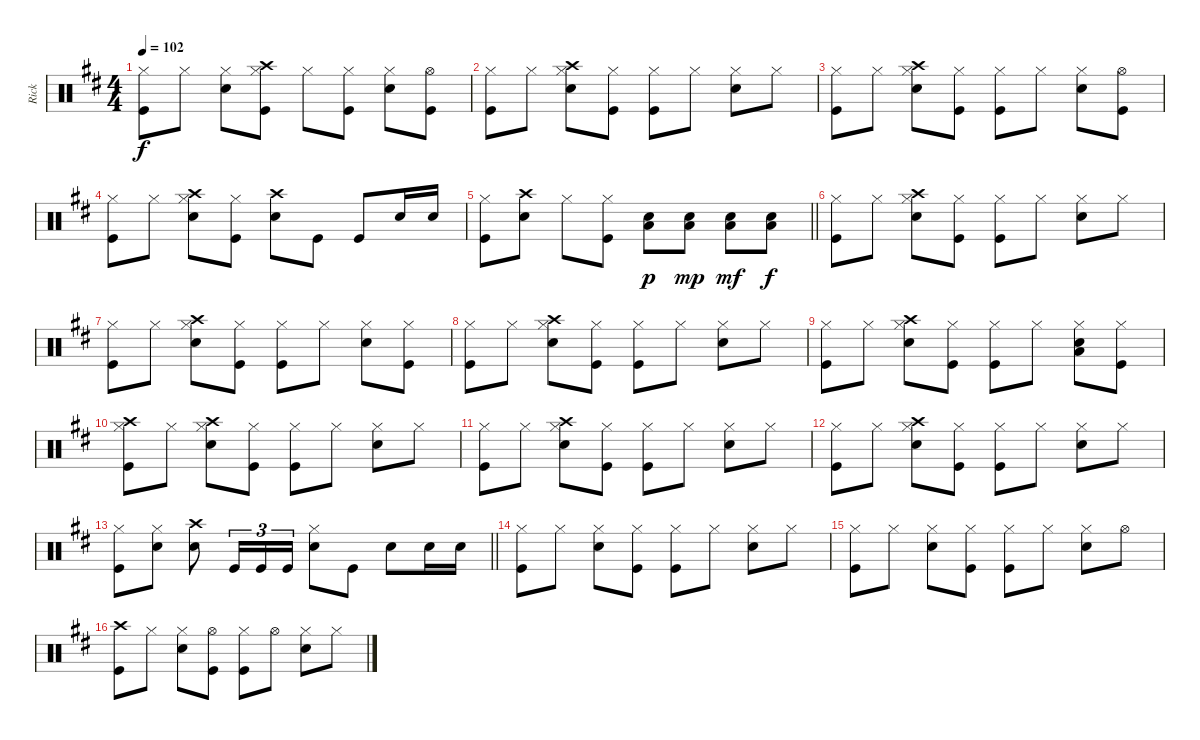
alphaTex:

\track ("Rick" "Rick") {instrument percussion}
\staff {score}
\articulation defaults
\ts (4 4)
\tempo 102
\clef neutral
\ks d
("Hi-Hat (closed)" "Kick (hit)").8{dy f} "Hi-Hat (closed)".8 ("Snare (hit) 2" "Hi-Hat (closed)").8 ("Hi-Hat (closed)" "Crash high (hit)" "Kick (hit)").8 "Hi-Hat (closed)".8 ("Hi-Hat (closed)" "Kick (hit)").8 ("Hi-Hat (closed)" "Snare (hit) 2").8 ("Hi-Hat (open)" "Kick (hit)").8 |
("Hi-Hat (closed)" "Kick (hit)").8 "Hi-Hat (closed)".8 ("Crash high (hit)" "Snare (hit) 2" "Hi-Hat (closed)").8 ("Hi-Hat (closed)" "Kick (hit)").8 ("Hi-Hat (closed)" "Kick (hit)").8 "Hi-Hat (closed)".8 ("Hi-Hat (closed)" "Snare (hit) 2").8 "Hi-Hat (closed)".8 |
("Hi-Hat (closed)" "Kick (hit)").8 "Hi-Hat (closed)".8 ("Crash high (hit)" "Snare (hit) 2" "Hi-Hat (closed)").8 ("Hi-Hat (closed)" "Kick (hit)").8 ("Hi-Hat (closed)" "Kick (hit)").8 "Hi-Hat (closed)".8 ("Hi-Hat (closed)" "Snare (hit) 2").8 ("Hi-Hat (open)" "Kick (hit)").8 |
("Hi-Hat (closed)" "Kick (hit)").8 "Hi-Hat (closed)".8 ("Hi-Hat (closed)" "Crash high (hit)" "Snare (hit) 2").8 ("Hi-Hat (closed)" "Kick (hit)").8 ("Crash high (hit)" "Snare (hit) 2").8 "Kick (hit)".8 "Kick (hit)".8 "Snare (hit) 2".16 "Snare (hit) 2".16 |
\barLineRight lightlight
("Hi-Hat (closed)" "Kick (hit)").8 ("Crash high (hit)" "Snare (hit) 2").8 "Hi-Hat (closed)".8 ("Hi-Hat (closed)" "Kick (hit)").8 ("Low Tom (hit)" "Snare (hit) 2").8{dy p} ("Low Tom (hit)" "Snare (hit) 2").8{dy mp} ("Low Tom (hit)" "Snare (hit) 2").8{dy mf} ("Low Tom (hit)" "Snare (hit) 2").8{dy f} |
("Hi-Hat (closed)" "Kick (hit)").8 "Hi-Hat (closed)".8 ("Crash high (hit)" "Snare (hit) 2" "Hi-Hat (closed)").8 ("Hi-Hat (closed)" "Kick (hit)").8 ("Hi-Hat (closed)" "Kick (hit)").8 "Hi-Hat (closed)".8 ("Hi-Hat (closed)" "Snare (hit) 2").8 "Hi-Hat (closed)".8 |
("Hi-Hat (closed)" "Kick (hit)").8 "Hi-Hat (closed)".8 ("Crash high (hit)" "Snare (hit) 2" "Hi-Hat (closed)").8 ("Hi-Hat (closed)" "Kick (hit)").8 ("Hi-Hat (closed)" "Kick (hit)").8 "Hi-Hat (closed)".8 ("Hi-Hat (closed)" "Snare (hit) 2").8 ("Hi-Hat (closed)" "Kick (hit)").8 |
("Hi-Hat (closed)" "Kick (hit)").8 "Hi-Hat (closed)".8 ("Crash high (hit)" "Snare (hit) 2" "Hi-Hat (closed)").8 ("Hi-Hat (closed)" "Kick (hit)").8 ("Hi-Hat (closed)" "Kick (hit)").8 "Hi-Hat (closed)".8 ("Hi-Hat (closed)" "Snare (hit) 2").8 "Hi-Hat (closed)".8 |
("Hi-Hat (closed)" "Kick (hit)").8 "Hi-Hat (closed)".8 ("Crash high (hit)" "Snare (hit) 2" "Hi-Hat (closed)").8 ("Hi-Hat (closed)" "Kick (hit)").8 ("Hi-Hat (closed)" "Kick (hit)").8 "Hi-Hat (closed)".8 ("Hi-Hat (closed)" "Snare (hit) 2" "Low Tom (hit)").8 ("Hi-Hat (closed)" "Kick (hit)").8 |
("Hi-Hat (closed)" "Crash high (hit)" "Kick (hit)").8 "Hi-Hat (closed)".8 ("Crash high (hit)" "Snare (hit) 2" "Hi-Hat (closed)").8 ("Hi-Hat (closed)" "Kick (hit)").8 ("Hi-Hat (closed)" "Kick (hit)").8 "Hi-Hat (closed)".8 ("Hi-Hat (closed)" "Snare (hit) 2").8 "Hi-Hat (closed)".8 |
("Hi-Hat (closed)" "Kick (hit)").8 "Hi-Hat (closed)".8 ("Crash high (hit)" "Hi-Hat (closed)" "Snare (hit) 2").8 ("Hi-Hat (closed)" "Kick (hit)").8 ("Hi-Hat (closed)" "Kick (hit)").8 "Hi-Hat (closed)".8 ("Hi-Hat (closed)" "Snare (hit) 2").8 "Hi-Hat (closed)".8 |
("Hi-Hat (closed)" "Kick (hit)").8 "Hi-Hat (closed)".8 ("Crash high (hit)" "Hi-Hat (closed)" "Snare (hit) 2").8 ("Hi-Hat (closed)" "Kick (hit)").8 ("Hi-Hat (closed)" "Kick (hit)").8 "Hi-Hat (closed)".8 ("Hi-Hat (closed)" "Snare (hit) 2").8 "Hi-Hat (closed)".8 |
\barLineRight lightlight
("Hi-Hat (closed)" "Kick (hit)").8 ("Hi-Hat (closed)" "Snare (hit) 2").8 ("Crash high (hit)" "Snare (hit) 2").8 "Kick (hit)".16{tu (3 2)} "Kick (hit)".16{tu (3 2)} "Kick (hit)".16{tu (3 2)} ("Hi-Hat (closed)" "Snare (hit) 2").8 "Kick (hit)".8 "Snare (hit) 2".8 "Snare (hit) 2".16 "Snare (hit) 2".16 |
("Hi-Hat (closed)" "Kick (hit)").8 "Hi-Hat (closed)".8 ("Hi-Hat (closed)" "Snare (hit) 2").8 ("Hi-Hat (closed)" "Kick (hit)").8 ("Hi-Hat (closed)" "Kick (hit)").8 "Hi-Hat (closed)".8 ("Hi-Hat (closed)" "Snare (hit) 2").8 "Hi-Hat (closed)".8 |
("Hi-Hat (closed)" "Kick (hit)").8 "Hi-Hat (closed)".8 ("Hi-Hat (closed)" "Snare (hit) 2").8 ("Hi-Hat (closed)" "Kick (hit)").8 ("Hi-Hat (closed)" "Kick (hit)").8 "Hi-Hat (closed)".8 ("Hi-Hat (closed)" "Snare (hit) 2").8 "Hi-Hat (open)".8 |
("Crash high (hit)" "Kick (hit)").8 "Hi-Hat (closed)".8 ("Hi-Hat (closed)" "Snare (hit) 2").8 ("Hi-Hat (open)" "Kick (hit)").8 ("Hi-Hat (closed)" "Kick (hit)").8 "Hi-Hat (open)".8 ("Hi-Hat (closed)" "Snare (hit) 2").8 "Hi-Hat (closed)".8
